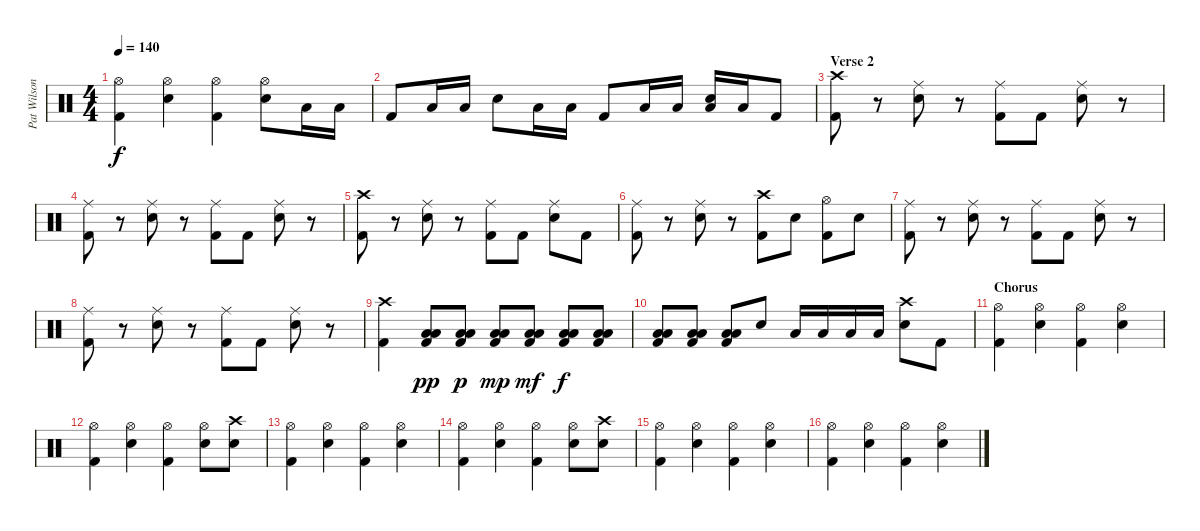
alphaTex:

\track ("Pat Wilson - Drums" "Pat Wilson") {instrument percussion}
\staff {score}
\articulation defaults
\ts (4 4)
\tempo 140
\clef neutral
\ks c
("Hi-Hat (open)" "Kick (hit) 2").4{dy f} ("Hi-Hat (open)" "Electric Snare (hit)").4 ("Hi-Hat (open)" "Kick (hit) 2").4 ("Hi-Hat (open)" "Electric Snare (hit)").8 "Low Tom (hit)".16 "Low Tom (hit)".16 |
"Kick (hit) 2".8 "Low Tom (hit)".16 "Low Tom (hit)".16 "Electric Snare (hit)".8 "Low Tom (hit)".16 "Low Tom (hit)".16 "Kick (hit) 2".8 "Low Tom (hit)".16 "Low Tom (hit)".16 ("Low Floor Tom (hit)" "Electric Snare (hit)").16 "Low Floor Tom (hit)".16 "Kick (hit) 2".8 |
\section ("" "Verse 2")
("Crash high (hit)" "Kick (hit) 2").8 r.8 ("Ride (middle)" "Electric Snare (hit)").8 r.8 ("Ride (middle)" "Kick (hit) 2").8 "Kick (hit) 2".8 ("Ride (middle)" "Electric Snare (hit)").8 r.8 |
("Ride (middle)" "Kick (hit) 2").8 r.8 ("Ride (middle)" "Electric Snare (hit)").8 r.8 ("Ride (middle)" "Kick (hit) 2").8 "Kick (hit) 2".8 ("Ride (middle)" "Electric Snare (hit)").8 r.8 |
("Crash high (hit)" "Kick (hit) 2").8 r.8 ("Ride (middle)" "Electric Snare (hit)").8 r.8 ("Ride (middle)" "Kick (hit) 2").8 "Kick (hit) 2".8 ("Ride (middle)" "Electric Snare (hit)").8 "Kick (hit) 2".8 |
("Ride (middle)" "Kick (hit) 2").8 r.8 ("Ride (middle)" "Electric Snare (hit)").8 r.8 ("Crash high (hit)" "Kick (hit) 2").8 "Electric Snare (hit)".8 ("Hi-Hat (open)" "Kick (hit) 2").8 "Electric Snare (hit)".8 |
("Ride (middle)" "Kick (hit) 2").8 r.8 ("Ride (middle)" "Electric Snare (hit)").8 r.8 ("Ride (middle)" "Kick (hit) 2").8 "Kick (hit) 2".8 ("Ride (middle)" "Electric Snare (hit)").8 r.8 |
("Ride (middle)" "Kick (hit) 2").8 r.8 ("Ride (middle)" "Electric Snare (hit)").8 r.8 ("Ride (middle)" "Kick (hit) 2").8 "Kick (hit) 2".8 ("Ride (middle)" "Electric Snare (hit)").8 r.8 |
("Crash high (hit)" "Kick (hit) 2").4 ("Low Floor Tom (hit)" "Low Tom (hit)" "Kick (hit) 2").8{dy pp} ("Low Floor Tom (hit)" "Low Tom (hit)" "Kick (hit) 2").8{dy p} ("Low Floor Tom (hit)" "Low Tom (hit)" "Kick (hit) 2").8{dy mp} ("Low Floor Tom (hit)" "Low Tom (hit)" "Kick (hit) 2").8{dy mf} ("Low Floor Tom (hit)" "Low Tom (hit)" "Kick (hit) 2").8{dy f} ("Low Floor Tom (hit)" "Low Tom (hit)" "Kick (hit) 2").8 |
("Low Floor Tom (hit)" "Low Tom (hit)" "Kick (hit) 2").8 ("Low Floor Tom (hit)" "Low Tom (hit)" "Kick (hit) 2").8 ("Low Floor Tom (hit)" "Low Tom (hit)" "Kick (hit) 2").8 "Electric Snare (hit)".8 "Low Tom (hit)".16 "Low Tom (hit)".16 "Low Floor Tom (hit)".16 "Low Floor Tom (hit)".16 ("Crash high (hit)" "Electric Snare (hit)").8 "Kick (hit) 2".8 |
\section ("" "Chorus")
("Hi-Hat (open)" "Kick (hit) 2").4 ("Hi-Hat (open)" "Electric Snare (hit)").4 ("Hi-Hat (open)" "Kick (hit) 2").4 ("Hi-Hat (open)" "Electric Snare (hit)").4 |
("Hi-Hat (open)" "Kick (hit) 2").4 ("Hi-Hat (open)" "Electric Snare (hit)").4 ("Hi-Hat (open)" "Kick (hit) 2").4 ("Hi-Hat (open)" "Electric Snare (hit)").8 ("Crash high (hit)" "Electric Snare (hit)").8 |
("Hi-Hat (open)" "Kick (hit) 2").4 ("Hi-Hat (open)" "Electric Snare (hit)").4 ("Hi-Hat (open)" "Kick (hit) 2").4 ("Hi-Hat (open)" "Electric Snare (hit)").4 |
("Hi-Hat (open)" "Kick (hit) 2").4 ("Hi-Hat (open)" "Electric Snare (hit)").4 ("Hi-Hat (open)" "Kick (hit) 2").4 ("Hi-Hat (open)" "Electric Snare (hit)").8 ("Crash high (hit)" "Electric Snare (hit)").8 |
("Hi-Hat (open)" "Kick (hit) 2").4 ("Hi-Hat (open)" "Electric Snare (hit)").4 ("Hi-Hat (open)" "Kick (hit) 2").4 ("Hi-Hat (open)" "Electric Snare (hit)").4 |
("Hi-Hat (open)" "Kick (hit) 2").4 ("Hi-Hat (open)" "Electric Snare (hit)").4 ("Hi-Hat (open)" "Kick (hit) 2").4 ("Hi-Hat (open)" "Electric Snare (hit)").4
